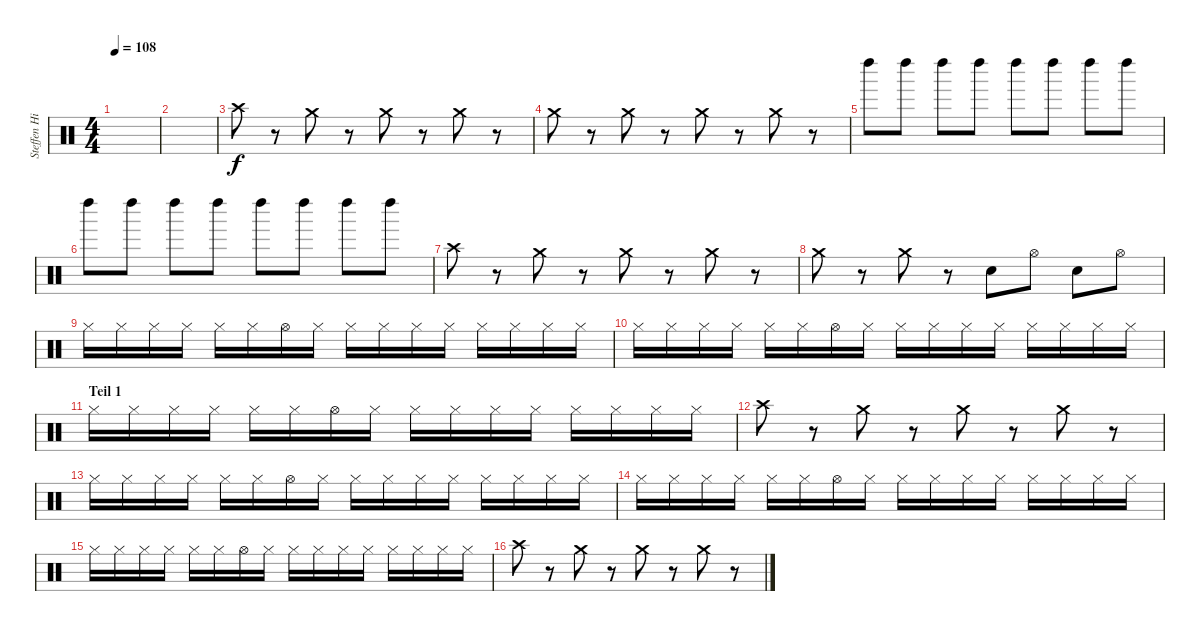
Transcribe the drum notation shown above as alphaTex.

\track ("Steffen Highhead" "Steffen Hi") {instrument percussion}
\staff {score}
\articulation defaults
\ts (4 4)
\tempo 108
\clef neutral
\ks c
|
|
"Crash high (hit)".8 r.8 "Crash medium (hit)".8 r.8 "Crash medium (hit)".8 r.8 "Crash medium (hit)".8 r.8 |
"Crash medium (hit)".8 r.8 "Crash medium (hit)".8 r.8 "Crash medium (hit)".8 r.8 "Crash medium (hit)".8 r.8 |
"Left Maraca (hit)".8 "Left Maraca (hit)".8 "Left Maraca (hit)".8 "Left Maraca (hit)".8 "Left Maraca (hit)".8 "Left Maraca (hit)".8 "Left Maraca (hit)".8 "Left Maraca (hit)".8 |
"Left Maraca (hit)".8 "Left Maraca (hit)".8 "Left Maraca (hit)".8 "Left Maraca (hit)".8 "Left Maraca (hit)".8 "Left Maraca (hit)".8 "Left Maraca (hit)".8 "Left Maraca (hit)".8 |
"Crash high (hit)".8 r.8 "Crash medium (hit)".8 r.8 "Crash medium (hit)".8 r.8 "Crash medium (hit)".8 r.8 |
"Crash medium (hit)".8 r.8 "Crash medium (hit)".8 r.8 "Electric Snare (hit)".8 "Hi-Hat (open)".8 "Electric Snare (hit)".8 "Hi-Hat (open)".8 |
"Hi-Hat (closed)".16 "Hi-Hat (closed)".16 "Hi-Hat (closed)".16 "Hi-Hat (closed)".16 "Hi-Hat (closed)".16 "Hi-Hat (closed)".16 "Hi-Hat (open)".16 "Hi-Hat (closed)".16 "Hi-Hat (closed)".16 "Hi-Hat (closed)".16 "Hi-Hat (closed)".16 "Hi-Hat (closed)".16 "Hi-Hat (closed)".16 "Hi-Hat (closed)".16 "Hi-Hat (closed)".16 "Hi-Hat (closed)".16 |
"Hi-Hat (closed)".16 "Hi-Hat (closed)".16 "Hi-Hat (closed)".16 "Hi-Hat (closed)".16 "Hi-Hat (closed)".16 "Hi-Hat (closed)".16 "Hi-Hat (open)".16 "Hi-Hat (closed)".16 "Hi-Hat (closed)".16 "Hi-Hat (closed)".16 "Hi-Hat (closed)".16 "Hi-Hat (closed)".16 "Hi-Hat (closed)".16 "Hi-Hat (closed)".16 "Hi-Hat (closed)".16 "Hi-Hat (closed)".16 |
\section ("" "Teil 1")
"Hi-Hat (closed)".16 "Hi-Hat (closed)".16 "Hi-Hat (closed)".16 "Hi-Hat (closed)".16 "Hi-Hat (closed)".16 "Hi-Hat (closed)".16 "Hi-Hat (open)".16 "Hi-Hat (closed)".16 "Hi-Hat (closed)".16 "Hi-Hat (closed)".16 "Hi-Hat (closed)".16 "Hi-Hat (closed)".16 "Hi-Hat (closed)".16 "Hi-Hat (closed)".16 "Hi-Hat (closed)".16 "Hi-Hat (closed)".16 |
"Crash high (hit)".8 r.8 "Crash medium (hit)".8 r.8 "Crash medium (hit)".8 r.8 "Crash medium (hit)".8 r.8 |
"Hi-Hat (closed)".16 "Hi-Hat (closed)".16 "Hi-Hat (closed)".16 "Hi-Hat (closed)".16 "Hi-Hat (closed)".16 "Hi-Hat (closed)".16 "Hi-Hat (open)".16 "Hi-Hat (closed)".16 "Hi-Hat (closed)".16 "Hi-Hat (closed)".16 "Hi-Hat (closed)".16 "Hi-Hat (closed)".16 "Hi-Hat (closed)".16 "Hi-Hat (closed)".16 "Hi-Hat (closed)".16 "Hi-Hat (closed)".16 |
"Hi-Hat (closed)".16 "Hi-Hat (closed)".16 "Hi-Hat (closed)".16 "Hi-Hat (closed)".16 "Hi-Hat (closed)".16 "Hi-Hat (closed)".16 "Hi-Hat (open)".16 "Hi-Hat (closed)".16 "Hi-Hat (closed)".16 "Hi-Hat (closed)".16 "Hi-Hat (closed)".16 "Hi-Hat (closed)".16 "Hi-Hat (closed)".16 "Hi-Hat (closed)".16 "Hi-Hat (closed)".16 "Hi-Hat (closed)".16 |
"Hi-Hat (closed)".16 "Hi-Hat (closed)".16 "Hi-Hat (closed)".16 "Hi-Hat (closed)".16 "Hi-Hat (closed)".16 "Hi-Hat (closed)".16 "Hi-Hat (open)".16 "Hi-Hat (closed)".16 "Hi-Hat (closed)".16 "Hi-Hat (closed)".16 "Hi-Hat (closed)".16 "Hi-Hat (closed)".16 "Hi-Hat (closed)".16 "Hi-Hat (closed)".16 "Hi-Hat (closed)".16 "Hi-Hat (closed)".16 |
"Crash high (hit)".8 r.8 "Crash medium (hit)".8 r.8 "Crash medium (hit)".8 r.8 "Crash medium (hit)".8 r.8
